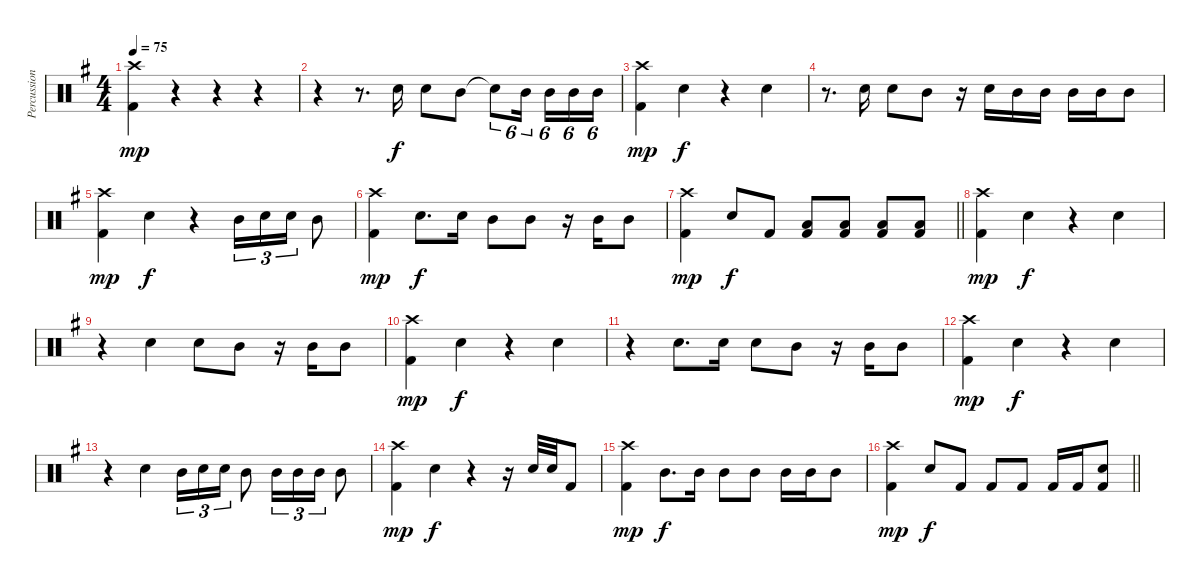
\track ("Percussion" "Percussion") {instrument percussion}
\staff {score}
\articulation defaults
\ts (4 4)
\tempo 75
\clef neutral
\ks g
("Crash high (hit)" "Kick (hit) 2").4{dy mp} r.4 r.4 r.4 |
r.4 r.8{d} "Snare (hit) 2".16{dy f} "Snare (hit) 2".8 "Mid Tom (hit)".8 "Snare (hit)"{t}.8{tu (6 4)} "Mid Tom (hit)".16{tu (6 4) beam splitsecondary} "Mid Tom (hit)".16{tu (6 4)} "Mid Tom (hit)".16{tu (6 4)} "Mid Tom (hit)".16{tu (6 4)} |
("Crash high (hit)" "Kick (hit) 2").4{dy mp} "Snare (hit) 2".4{dy f} r.4 "Snare (hit) 2".4 |
r.8{d} "Snare (hit) 2".16 "Snare (hit) 2".8 "Mid Tom (hit)".8 r.16 "Snare (hit) 2".16 "Mid Tom (hit)".16 "Mid Tom (hit)".16 "Mid Tom (hit)".16 "Mid Tom (hit)".16 "Mid Tom (hit)".8 |
("Crash high (hit)" "Kick (hit) 2").4{dy mp} "Snare (hit) 2".4{dy f} r.4 "Mid Tom (hit)".16{tu (3 2)} "Snare (hit) 2".16{tu (3 2)} "Snare (hit) 2".16{tu (3 2)} "Mid Tom (hit)".8 |
("Crash high (hit)" "Kick (hit) 2").4{dy mp} "Snare (hit) 2".8{d dy f} "Snare (hit) 2".16 "Mid Tom (hit)".8 "Mid Tom (hit)".8 r.16 "Mid Tom (hit)".16 "Mid Tom (hit)".8 |
\barLineRight lightlight
("Crash high (hit)" "Kick (hit) 2").4{dy mp} "Snare (hit) 2".8{dy f} "Kick (hit) 2".8 ("Low Tom (hit)" "Kick (hit) 2").8 ("Low Tom (hit)" "Kick (hit) 2").8 ("Low Tom (hit)" "Kick (hit) 2").8 ("Low Tom (hit)" "Kick (hit) 2").8 |
("Crash high (hit)" "Kick (hit) 2").4{dy mp} "Snare (hit) 2".4{dy f} r.4 "Snare (hit) 2".4 |
r.4 "Snare (hit) 2".4 "Snare (hit) 2".8 "Mid Tom (hit)".8 r.16 "Mid Tom (hit)".16 "Mid Tom (hit)".8 |
("Crash high (hit)" "Kick (hit) 2").4{dy mp} "Snare (hit) 2".4{dy f} r.4 "Snare (hit) 2".4 |
r.4 "Snare (hit) 2".8{d} "Snare (hit) 2".16 "Snare (hit) 2".8 "Mid Tom (hit)".8 r.16 "Mid Tom (hit)".16 "Mid Tom (hit)".8 |
("Crash high (hit)" "Kick (hit) 2").4{dy mp} "Snare (hit) 2".4{dy f} r.4 "Snare (hit) 2".4 |
r.4 "Snare (hit) 2".4 "Mid Tom (hit)".16{tu (3 2)} "Snare (hit) 2".16{tu (3 2)} "Snare (hit) 2".16{tu (3 2)} "Mid Tom (hit)".8 "Mid Tom (hit)".16{tu (3 2)} "Mid Tom (hit)".16{tu (3 2)} "Mid Tom (hit)".16{tu (3 2)} "Mid Tom (hit)".8 |
("Crash high (hit)" "Kick (hit) 2").4{dy mp} "Snare (hit) 2".4{dy f} r.4 r.16 "Snare (hit) 2".32 "Snare (hit) 2".32 "Kick (hit) 2".8 |
("Crash high (hit)" "Kick (hit) 2").4{dy mp} "Mid Tom (hit)".8{d dy f} "Mid Tom (hit)".16 "Mid Tom (hit)".8 "Mid Tom (hit)".8 "Mid Tom (hit)".16 "Mid Tom (hit)".16 "Mid Tom (hit)".8 |
\barLineRight lightlight
("Crash high (hit)" "Kick (hit) 2").4{dy mp} "Snare (hit) 2".8{dy f} "Kick (hit) 2".8 "Kick (hit) 2".8 "Kick (hit) 2".8 "Kick (hit) 2".16 "Kick (hit) 2".16 ("Snare (hit) 2" "Kick (hit) 2").8
